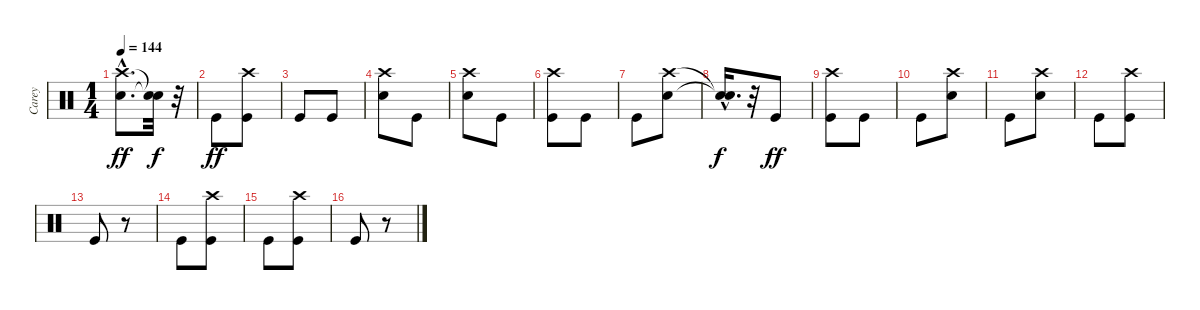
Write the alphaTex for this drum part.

\track ("Carey" "Carey") {instrument percussion}
\staff {score}
\articulation defaults
\ts (1 4)
\tempo 144
\clef neutral
\ks c
("Snare (hit) 2"{hac} "Crash high (hit)"{hac}).8{d dy ff} ("Snare (hit)"{t} "Snare (hit)"{t}).32{dy f} r.32 |
"Kick (hit)".8{dy ff} ("Kick (hit)" "Crash high (hit)").8 |
"Kick (hit)".8 "Kick (hit)".8 |
("Snare (hit) 2" "Crash high (hit)").8 "Kick (hit)".8 |
("Snare (hit) 2" "Crash high (hit)").8 "Kick (hit)".8 |
("Kick (hit)" "Crash high (hit)").8 "Kick (hit)".8 |
"Kick (hit)".8 ("Snare (hit) 2" "Crash high (hit)").8 |
("Snare (hit)"{hac t} "Snare (hit)"{hac t}).16{d dy f} r.32 "Kick (hit)".8{dy ff} |
("Kick (hit)" "Crash high (hit)").8 "Kick (hit)".8 |
"Kick (hit)".8 ("Snare (hit) 2" "Crash high (hit)").8 |
"Kick (hit)".8 ("Snare (hit) 2" "Crash high (hit)").8 |
"Kick (hit)".8 ("Kick (hit)" "Crash high (hit)").8 |
"Kick (hit)".8 r.8 |
"Kick (hit)".8 ("Kick (hit)" "Crash high (hit)").8 |
"Kick (hit)".8 ("Kick (hit)" "Crash high (hit)").8 |
"Kick (hit)".8 r.8
